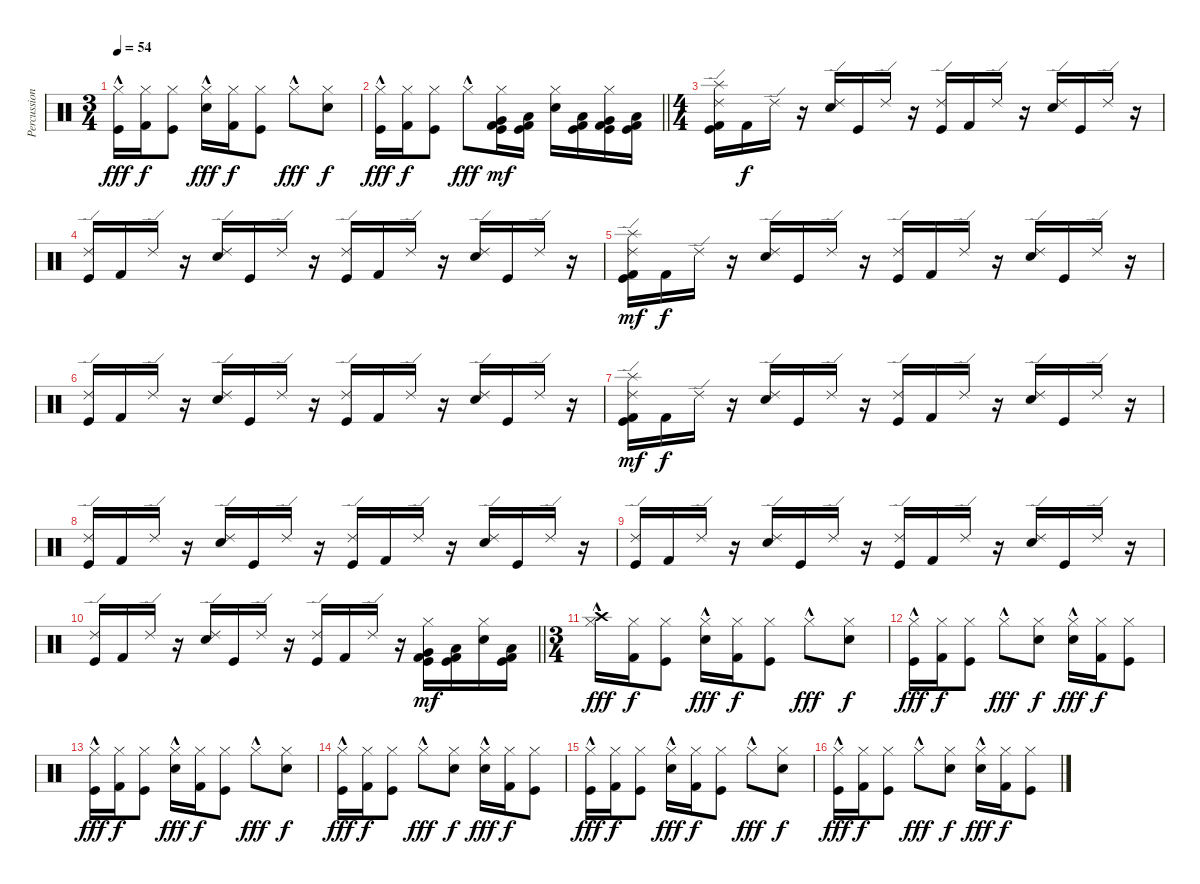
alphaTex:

\track ("Percussion" "Percussion") {instrument percussion}
\staff {score}
\articulation defaults
\ts (3 4)
\tempo 54
\clef neutral
\ks c
("Hi-Hat (closed)"{hac} "Kick (hit)").16{dy fff} ("Hi-Hat (closed)" "Kick (hit) 2").16{dy f} ("Hi-Hat (closed)" "Kick (hit)").8 ("Hi-Hat (closed)"{hac} "Snare (hit) 2").16{dy fff} ("Hi-Hat (closed)" "Kick (hit) 2").16{dy f} ("Hi-Hat (closed)" "Kick (hit)").8 "Hi-Hat (closed)"{hac}.8{dy fff} ("Hi-Hat (closed)" "Snare (hit) 2").8{dy f} |
\barLineRight lightlight
("Hi-Hat (closed)"{hac} "Kick (hit)").16{dy fff} ("Hi-Hat (closed)" "Kick (hit) 2").16{dy f} ("Hi-Hat (closed)" "Kick (hit)").8 "Hi-Hat (closed)"{hac}.8{dy fff} ("Hi-Hat (closed)" "Very Low Tom (hit)" "Kick (hit)" "Kick (hit) 2").16{dy mf} ("Low Tom (hit)" "Kick (hit)" "Kick (hit) 2").16 ("Hi-Hat (closed)" "Electric Snare (hit)").16 ("Low Tom (hit)" "Kick (hit)" "Kick (hit) 2").16 ("Hi-Hat (closed)" "Very Low Tom (hit)" "Kick (hit)" "Kick (hit) 2").16 ("Low Floor Tom (hit)" "Kick (hit)" "Kick (hit) 2").16 |
\ts (4 4)
\section ("" " ")
("Ride (edge) 2" "Splash (hit)" "Kick (hit)" "Kick (hit) 2").16 "Kick (hit) 2".16{dy f} "Ride (edge) 2".16 r.16 ("Ride (edge) 2" "Snare (hit) 2").16 "Kick (hit)".16 "Ride (edge) 2".16 r.16 ("Ride (edge) 2" "Kick (hit)").16 "Kick (hit) 2".16 "Ride (edge) 2".16 r.16 ("Ride (edge) 2" "Snare (hit) 2").16 "Kick (hit)".16 "Ride (edge) 2".16 r.16 |
("Ride (edge) 2" "Kick (hit)").16 "Kick (hit) 2".16 "Ride (edge) 2".16 r.16 ("Ride (edge) 2" "Snare (hit) 2").16 "Kick (hit)".16 "Ride (edge) 2".16 r.16 ("Ride (edge) 2" "Kick (hit)").16 "Kick (hit) 2".16 "Ride (edge) 2".16 r.16 ("Ride (edge) 2" "Snare (hit) 2").16 "Kick (hit)".16 "Ride (edge) 2".16 r.16 |
("Ride (edge) 2" "Splash (hit)" "Kick (hit)" "Kick (hit) 2").16{dy mf} "Kick (hit) 2".16{dy f} "Ride (edge) 2".16 r.16 ("Ride (edge) 2" "Snare (hit) 2").16 "Kick (hit)".16 "Ride (edge) 2".16 r.16 ("Ride (edge) 2" "Kick (hit)").16 "Kick (hit) 2".16 "Ride (edge) 2".16 r.16 ("Ride (edge) 2" "Snare (hit) 2").16 "Kick (hit)".16 "Ride (edge) 2".16 r.16 |
("Ride (edge) 2" "Kick (hit)").16 "Kick (hit) 2".16 "Ride (edge) 2".16 r.16 ("Ride (edge) 2" "Snare (hit) 2").16 "Kick (hit)".16 "Ride (edge) 2".16 r.16 ("Ride (edge) 2" "Kick (hit)").16 "Kick (hit) 2".16 "Ride (edge) 2".16 r.16 ("Ride (edge) 2" "Snare (hit) 2").16 "Kick (hit)".16 "Ride (edge) 2".16 r.16 |
("Ride (edge) 2" "Splash (hit)" "Kick (hit)" "Kick (hit) 2").16{dy mf} "Kick (hit) 2".16{dy f} "Ride (edge) 2".16 r.16 ("Ride (edge) 2" "Snare (hit) 2").16 "Kick (hit)".16 "Ride (edge) 2".16 r.16 ("Ride (edge) 2" "Kick (hit)").16 "Kick (hit) 2".16 "Ride (edge) 2".16 r.16 ("Ride (edge) 2" "Snare (hit) 2").16 "Kick (hit)".16 "Ride (edge) 2".16 r.16 |
("Ride (edge) 2" "Kick (hit)").16 "Kick (hit) 2".16 "Ride (edge) 2".16 r.16 ("Ride (edge) 2" "Snare (hit) 2").16 "Kick (hit)".16 "Ride (edge) 2".16 r.16 ("Ride (edge) 2" "Kick (hit)").16 "Kick (hit) 2".16 "Ride (edge) 2".16 r.16 ("Ride (edge) 2" "Snare (hit) 2").16 "Kick (hit)".16 "Ride (edge) 2".16 r.16 |
("Ride (edge) 2" "Kick (hit)").16 "Kick (hit) 2".16 "Ride (edge) 2".16 r.16 ("Ride (edge) 2" "Snare (hit) 2").16 "Kick (hit)".16 "Ride (edge) 2".16 r.16 ("Ride (edge) 2" "Kick (hit)").16 "Kick (hit) 2".16 "Ride (edge) 2".16 r.16 ("Ride (edge) 2" "Snare (hit) 2").16 "Kick (hit)".16 "Ride (edge) 2".16 r.16 |
\barLineRight lightlight
("Ride (edge) 2" "Kick (hit)").16 "Kick (hit) 2".16 "Ride (edge) 2".16 r.16 ("Ride (edge) 2" "Snare (hit) 2").16 "Kick (hit)".16 "Ride (edge) 2".16 r.16 ("Ride (edge) 2" "Kick (hit)").16 "Kick (hit) 2".16 "Ride (edge) 2".16 r.16 ("Hi-Hat (closed)" "Very Low Tom (hit)" "Kick (hit)" "Kick (hit) 2").16{dy mf} ("Low Tom (hit)" "Kick (hit)" "Kick (hit) 2").16 ("Hi-Hat (closed)" "Electric Snare (hit)").16 ("Low Tom (hit)" "Kick (hit)" "Kick (hit) 2").16 |
\ts (3 4)
\section ("" " ")
("Hi-Hat (closed)"{hac} "Crash high (hit)").16{dy fff} ("Hi-Hat (closed)" "Kick (hit) 2").16{dy f} ("Hi-Hat (closed)" "Kick (hit)").8 ("Hi-Hat (closed)"{hac} "Snare (hit) 2").16{dy fff} ("Hi-Hat (closed)" "Kick (hit) 2").16{dy f} ("Hi-Hat (closed)" "Kick (hit)").8 "Hi-Hat (closed)"{hac}.8{dy fff} ("Hi-Hat (closed)" "Snare (hit) 2").8{dy f} |
("Hi-Hat (closed)"{hac} "Kick (hit)").16{dy fff} ("Hi-Hat (closed)" "Kick (hit) 2").16{dy f} ("Hi-Hat (closed)" "Kick (hit)").8 "Hi-Hat (closed)"{hac}.8{dy fff} ("Hi-Hat (closed)" "Snare (hit) 2").8{dy f} ("Hi-Hat (closed)"{hac} "Snare (hit) 2").16{dy fff} ("Hi-Hat (closed)" "Kick (hit) 2").16{dy f} ("Hi-Hat (closed)" "Kick (hit)").8 |
("Hi-Hat (closed)"{hac} "Kick (hit)").16{dy fff} ("Hi-Hat (closed)" "Kick (hit) 2").16{dy f} ("Hi-Hat (closed)" "Kick (hit)").8 ("Hi-Hat (closed)"{hac} "Snare (hit) 2").16{dy fff} ("Hi-Hat (closed)" "Kick (hit) 2").16{dy f} ("Hi-Hat (closed)" "Kick (hit)").8 "Hi-Hat (closed)"{hac}.8{dy fff} ("Hi-Hat (closed)" "Snare (hit) 2").8{dy f} |
("Hi-Hat (closed)"{hac} "Kick (hit)").16{dy fff} ("Hi-Hat (closed)" "Kick (hit) 2").16{dy f} ("Hi-Hat (closed)" "Kick (hit)").8 "Hi-Hat (closed)"{hac}.8{dy fff} ("Hi-Hat (closed)" "Snare (hit) 2").8{dy f} ("Hi-Hat (closed)"{hac} "Snare (hit) 2").16{dy fff} ("Hi-Hat (closed)" "Kick (hit) 2").16{dy f} ("Hi-Hat (closed)" "Kick (hit)").8 |
("Hi-Hat (closed)"{hac} "Kick (hit)").16{dy fff} ("Hi-Hat (closed)" "Kick (hit) 2").16{dy f} ("Hi-Hat (closed)" "Kick (hit)").8 ("Hi-Hat (closed)"{hac} "Snare (hit) 2").16{dy fff} ("Hi-Hat (closed)" "Kick (hit) 2").16{dy f} ("Hi-Hat (closed)" "Kick (hit)").8 "Hi-Hat (closed)"{hac}.8{dy fff} ("Hi-Hat (closed)" "Snare (hit) 2").8{dy f} |
("Hi-Hat (closed)"{hac} "Kick (hit)").16{dy fff} ("Hi-Hat (closed)" "Kick (hit) 2").16{dy f} ("Hi-Hat (closed)" "Kick (hit)").8 "Hi-Hat (closed)"{hac}.8{dy fff} ("Hi-Hat (closed)" "Snare (hit) 2").8{dy f} ("Hi-Hat (closed)"{hac} "Snare (hit) 2").16{dy fff} ("Hi-Hat (closed)" "Kick (hit) 2").16{dy f} ("Hi-Hat (closed)" "Kick (hit)").8
